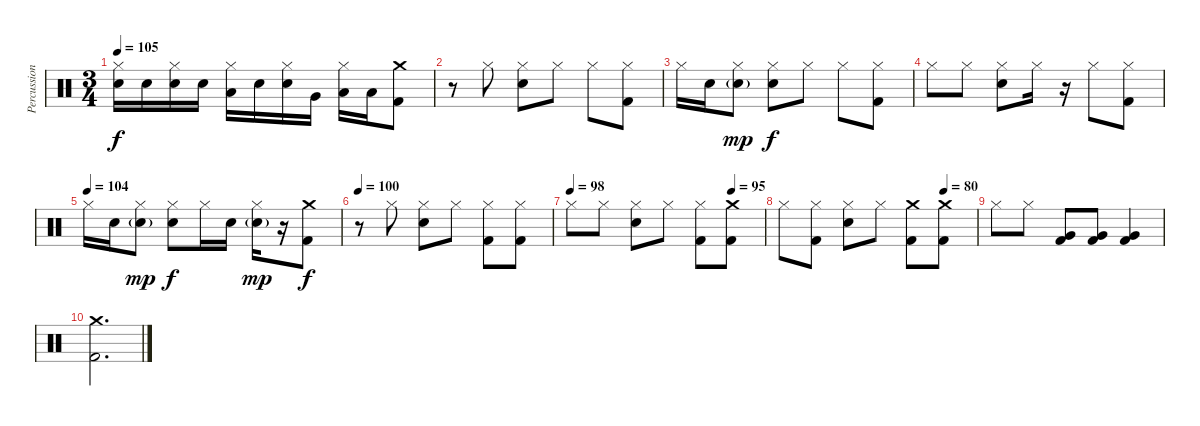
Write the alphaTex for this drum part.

\track ("Percussions" "Percussion") {instrument percussion}
\staff {score}
\articulation defaults
\ts (3 4)
\tempo 105
\clef neutral
\ks c
("Hi-Hat (closed)" "Snare (hit) 2").16{dy f} "Snare (hit) 2".16 ("Hi-Hat (closed)" "Snare (hit) 2").16 "Snare (hit) 2".16 ("Hi-Hat (closed)" "Low Floor Tom (hit)").16 "Snare (hit) 2".16 ("Hi-Hat (closed)" "Snare (hit) 2").16 "Very Low Tom (hit)".16 ("Hi-Hat (closed)" "Low Floor Tom (hit)").16 "Low Floor Tom (hit)".16 ("Crash medium (hit)" "Kick (hit) 2").8 |
r.8 "Hi-Hat (closed)".8 ("Hi-Hat (closed)" "Snare (hit) 2").8 "Hi-Hat (closed)".8 "Hi-Hat (closed)".8 ("Hi-Hat (closed)" "Kick (hit) 2").8 |
"Hi-Hat (closed)".16 "Snare (hit) 2".16 ("Hi-Hat (closed)" "Snare (hit) 2"{g}).8{dy mp} ("Hi-Hat (closed)" "Snare (hit) 2").8{dy f} "Hi-Hat (closed)".8 "Hi-Hat (closed)".8 ("Hi-Hat (closed)" "Kick (hit) 2").8 |
"Hi-Hat (closed)".8 "Hi-Hat (closed)".8 ("Hi-Hat (closed)" "Snare (hit) 2").8 "Hi-Hat (closed)".16 r.16 "Hi-Hat (closed)".8 ("Hi-Hat (closed)" "Kick (hit) 2").8 |
\tempo (104)
"Hi-Hat (closed)".16 "Snare (hit) 2".16 ("Hi-Hat (closed)" "Snare (hit) 2"{g}).8{dy mp} ("Hi-Hat (closed)" "Snare (hit) 2").8{dy f} "Hi-Hat (closed)".16 "Snare (hit) 2".16 ("Hi-Hat (closed)" "Snare (hit) 2"{g}).16{dy mp} r.16 ("Crash medium (hit)" "Kick (hit) 2").8{dy f} |
\tempo 100
r.8 "Hi-Hat (closed)".8 ("Hi-Hat (closed)" "Snare (hit) 2").8 "Hi-Hat (closed)".8 ("Hi-Hat (closed)" "Kick (hit) 2").8 ("Hi-Hat (closed)" "Kick (hit) 2").8 |
\tempo 98
\tempo (95 0.8333333333333334)
"Hi-Hat (closed)".8 "Hi-Hat (closed)".8 ("Hi-Hat (closed)" "Snare (hit) 2").8 "Hi-Hat (closed)".8 ("Hi-Hat (closed)" "Kick (hit) 2").8 ("Crash medium (hit)" "Kick (hit) 2").8 |
\tempo (80 0.8333333333333334)
"Hi-Hat (closed)".8 ("Hi-Hat (closed)" "Kick (hit) 2").8 ("Hi-Hat (closed)" "Snare (hit) 2").8 "Hi-Hat (closed)".8 ("Crash medium (hit)" "Kick (hit) 2").8 ("Crash medium (hit)" "Kick (hit) 2").8 |
"Hi-Hat (closed)".8 "Hi-Hat (closed)".8 ("Very Low Tom (hit)" "Kick (hit) 2").8 ("Very Low Tom (hit)" "Kick (hit) 2").8 ("Very Low Tom (hit)" "Kick (hit) 2").4 |
("Crash medium (hit)" "Kick (hit) 2").2{d}
